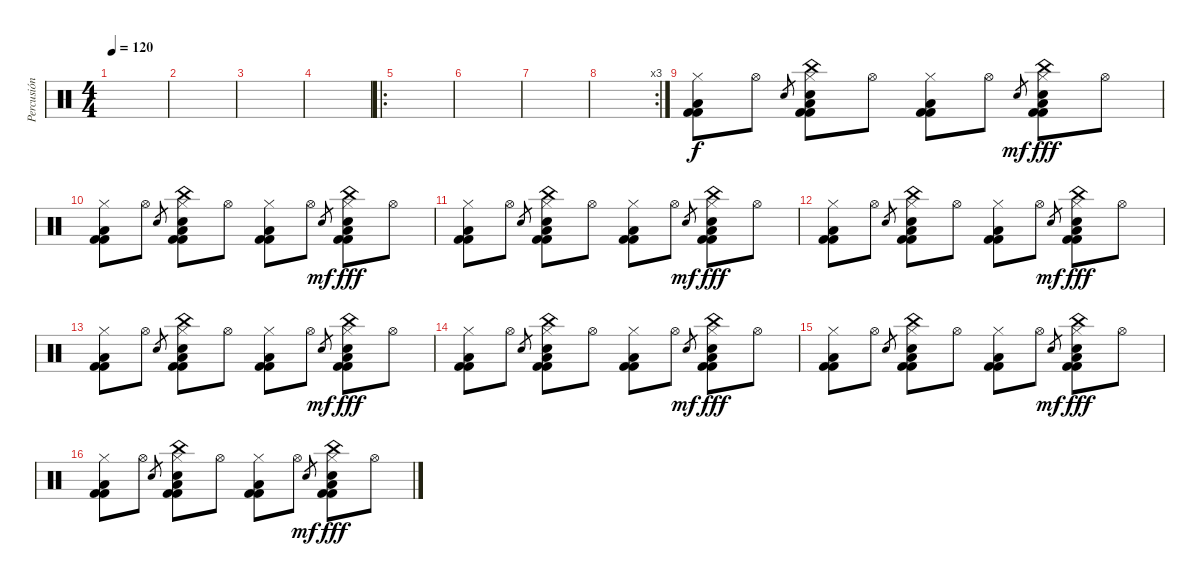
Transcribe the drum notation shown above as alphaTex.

\track ("Percusión II" "Percusión ") {instrument percussion}
\staff {score}
\articulation defaults
\ts (4 4)
\tempo 120
\clef neutral
\ks c
|
|
|
|
\ro
|
|
|
\rc 3
|
("Kick (hit) 2" "Hi-Hat (closed)" "Low Floor Tom (hit)" "Kick (hit) 2").8 "Hi-Hat (open)".8 "Hand Clap (hit)".8{gr} ("Kick (hit) 2" "Hi-Hat (closed)" "Electric Snare (hit)" "China (hit)" "Low Floor Tom (hit)" "Kick (hit) 2").8 "Hi-Hat (open)".8 ("Kick (hit) 2" "Hi-Hat (closed)" "Low Floor Tom (hit)" "Kick (hit) 2").8 "Hi-Hat (open)".8 "Hand Clap (hit)".8{gr dy mf} ("Kick (hit) 2" "Hi-Hat (closed)" "Electric Snare (hit)" "China (hit)" "Low Floor Tom (hit)" "Kick (hit) 2").8{dy fff} "Hi-Hat (open)".8 |
("Kick (hit) 2" "Hi-Hat (closed)" "Low Floor Tom (hit)" "Kick (hit) 2").8 "Hi-Hat (open)".8 "Hand Clap (hit)".8{gr} ("Kick (hit) 2" "Hi-Hat (closed)" "Electric Snare (hit)" "China (hit)" "Low Floor Tom (hit)" "Kick (hit) 2").8 "Hi-Hat (open)".8 ("Kick (hit) 2" "Hi-Hat (closed)" "Low Floor Tom (hit)" "Kick (hit) 2").8 "Hi-Hat (open)".8 "Hand Clap (hit)".8{gr dy mf} ("Kick (hit) 2" "Hi-Hat (closed)" "Electric Snare (hit)" "China (hit)" "Low Floor Tom (hit)" "Kick (hit) 2").8{dy fff} "Hi-Hat (open)".8 |
("Kick (hit) 2" "Hi-Hat (closed)" "Low Floor Tom (hit)" "Kick (hit) 2").8 "Hi-Hat (open)".8 "Hand Clap (hit)".8{gr} ("Kick (hit) 2" "Hi-Hat (closed)" "Electric Snare (hit)" "China (hit)" "Low Floor Tom (hit)" "Kick (hit) 2").8 "Hi-Hat (open)".8 ("Kick (hit) 2" "Hi-Hat (closed)" "Low Floor Tom (hit)" "Kick (hit) 2").8 "Hi-Hat (open)".8 "Hand Clap (hit)".8{gr dy mf} ("Kick (hit) 2" "Hi-Hat (closed)" "Electric Snare (hit)" "China (hit)" "Low Floor Tom (hit)" "Kick (hit) 2").8{dy fff} "Hi-Hat (open)".8 |
("Kick (hit) 2" "Hi-Hat (closed)" "Low Floor Tom (hit)" "Kick (hit) 2").8 "Hi-Hat (open)".8 "Hand Clap (hit)".8{gr} ("Kick (hit) 2" "Hi-Hat (closed)" "Electric Snare (hit)" "China (hit)" "Low Floor Tom (hit)" "Kick (hit) 2").8 "Hi-Hat (open)".8 ("Kick (hit) 2" "Hi-Hat (closed)" "Low Floor Tom (hit)" "Kick (hit) 2").8 "Hi-Hat (open)".8 "Hand Clap (hit)".8{gr dy mf} ("Kick (hit) 2" "Hi-Hat (closed)" "Electric Snare (hit)" "China (hit)" "Low Floor Tom (hit)" "Kick (hit) 2").8{dy fff} "Hi-Hat (open)".8 |
("Kick (hit) 2" "Hi-Hat (closed)" "Low Floor Tom (hit)" "Kick (hit) 2").8 "Hi-Hat (open)".8 "Hand Clap (hit)".8{gr} ("Kick (hit) 2" "Hi-Hat (closed)" "Electric Snare (hit)" "China (hit)" "Low Floor Tom (hit)" "Kick (hit) 2").8 "Hi-Hat (open)".8 ("Kick (hit) 2" "Hi-Hat (closed)" "Low Floor Tom (hit)" "Kick (hit) 2").8 "Hi-Hat (open)".8 "Hand Clap (hit)".8{gr dy mf} ("Kick (hit) 2" "Hi-Hat (closed)" "Electric Snare (hit)" "China (hit)" "Low Floor Tom (hit)" "Kick (hit) 2").8{dy fff} "Hi-Hat (open)".8 |
("Kick (hit) 2" "Hi-Hat (closed)" "Low Floor Tom (hit)" "Kick (hit) 2").8 "Hi-Hat (open)".8 "Hand Clap (hit)".8{gr} ("Kick (hit) 2" "Hi-Hat (closed)" "Electric Snare (hit)" "China (hit)" "Low Floor Tom (hit)" "Kick (hit) 2").8 "Hi-Hat (open)".8 ("Kick (hit) 2" "Hi-Hat (closed)" "Low Floor Tom (hit)" "Kick (hit) 2").8 "Hi-Hat (open)".8 "Hand Clap (hit)".8{gr dy mf} ("Kick (hit) 2" "Hi-Hat (closed)" "Electric Snare (hit)" "China (hit)" "Low Floor Tom (hit)" "Kick (hit) 2").8{dy fff} "Hi-Hat (open)".8 |
("Kick (hit) 2" "Hi-Hat (closed)" "Low Floor Tom (hit)" "Kick (hit) 2").8 "Hi-Hat (open)".8 "Hand Clap (hit)".8{gr} ("Kick (hit) 2" "Hi-Hat (closed)" "Electric Snare (hit)" "China (hit)" "Low Floor Tom (hit)" "Kick (hit) 2").8 "Hi-Hat (open)".8 ("Kick (hit) 2" "Hi-Hat (closed)" "Low Floor Tom (hit)" "Kick (hit) 2").8 "Hi-Hat (open)".8 "Hand Clap (hit)".8{gr dy mf} ("Kick (hit) 2" "Hi-Hat (closed)" "Electric Snare (hit)" "China (hit)" "Low Floor Tom (hit)" "Kick (hit) 2").8{dy fff} "Hi-Hat (open)".8 |
("Kick (hit) 2" "Hi-Hat (closed)" "Low Floor Tom (hit)" "Kick (hit) 2").8 "Hi-Hat (open)".8 "Hand Clap (hit)".8{gr} ("Kick (hit) 2" "Hi-Hat (closed)" "Electric Snare (hit)" "China (hit)" "Low Floor Tom (hit)" "Kick (hit) 2").8 "Hi-Hat (open)".8 ("Kick (hit) 2" "Hi-Hat (closed)" "Low Floor Tom (hit)" "Kick (hit) 2").8 "Hi-Hat (open)".8 "Hand Clap (hit)".8{gr dy mf} ("Kick (hit) 2" "Hi-Hat (closed)" "Electric Snare (hit)" "China (hit)" "Low Floor Tom (hit)" "Kick (hit) 2").8{dy fff} "Hi-Hat (open)".8
